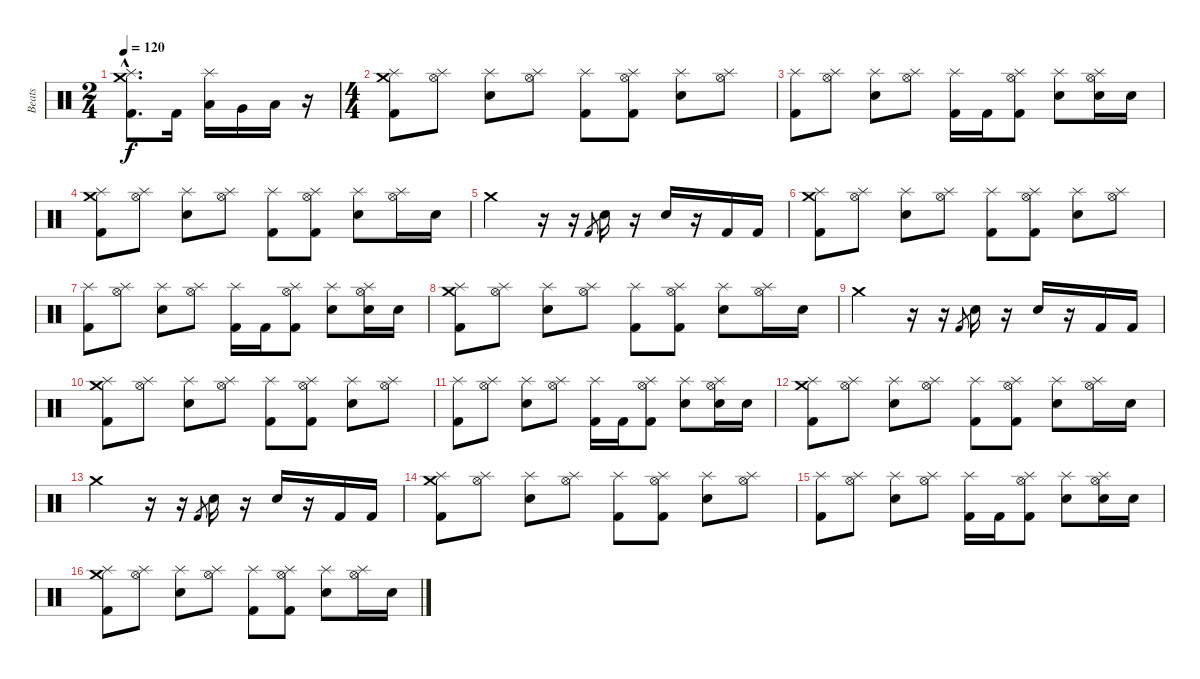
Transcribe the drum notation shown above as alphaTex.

\track ("Beats" "Beats") {instrument percussion}
\staff {score}
\articulation defaults
\ts (2 4)
\tempo 120
\clef neutral
\ks c
("Kick (hit) 2"{hac} "Crash medium (hit)"{hac} "Splash (hit)"{hac}).8{d dy f} "Kick (hit) 2".16 ("Low Tom (hit)" "Splash (hit)").16 "Very Low Tom (hit)".16 "Low Floor Tom (hit)".16 r.16 |
\ts (4 4)
("Kick (hit) 2" "Crash medium (hit)" "Splash (hit)").8 ("Hi-Hat (open)" "Splash (hit)").8 ("Electric Snare (hit)" "Splash (hit)").8 ("Hi-Hat (open)" "Splash (hit)").8 ("Kick (hit) 2" "Splash (hit)").8 ("Kick (hit) 2" "Hi-Hat (open)" "Splash (hit)").8 ("Electric Snare (hit)" "Splash (hit)").8 ("Hi-Hat (open)" "Splash (hit)").8 |
("Kick (hit) 2" "Splash (hit)").8 ("Hi-Hat (open)" "Splash (hit)").8 ("Electric Snare (hit)" "Splash (hit)").8 ("Hi-Hat (open)" "Splash (hit)").8 ("Kick (hit) 2" "Splash (hit)").16 "Kick (hit) 2".16 ("Kick (hit) 2" "Hi-Hat (open)" "Splash (hit)").8 ("Electric Snare (hit)" "Splash (hit)").8 ("Electric Snare (hit)" "Hi-Hat (open)" "Splash (hit)").16 "Electric Snare (hit)".16 |
("Kick (hit) 2" "Crash medium (hit)" "Splash (hit)").8 ("Hi-Hat (open)" "Splash (hit)").8 ("Electric Snare (hit)" "Splash (hit)").8 ("Hi-Hat (open)" "Splash (hit)").8 ("Kick (hit) 2" "Splash (hit)").8 ("Kick (hit) 2" "Hi-Hat (open)" "Splash (hit)").8 ("Electric Snare (hit)" "Splash (hit)").8 ("Hi-Hat (open)" "Splash (hit)").16 "Electric Snare (hit)".16 |
"Crash medium (hit)".2 r.16 r.16 "Kick (hit) 2".8{gr} "Electric Snare (hit)".16 r.16 "Electric Snare (hit)".16 r.16 "Kick (hit) 2".16 "Kick (hit) 2".16 |
("Kick (hit) 2" "Crash medium (hit)" "Splash (hit)").8 ("Hi-Hat (open)" "Splash (hit)").8 ("Electric Snare (hit)" "Splash (hit)").8 ("Hi-Hat (open)" "Splash (hit)").8 ("Kick (hit) 2" "Splash (hit)").8 ("Kick (hit) 2" "Hi-Hat (open)" "Splash (hit)").8 ("Electric Snare (hit)" "Splash (hit)").8 ("Hi-Hat (open)" "Splash (hit)").8 |
("Kick (hit) 2" "Splash (hit)").8 ("Hi-Hat (open)" "Splash (hit)").8 ("Electric Snare (hit)" "Splash (hit)").8 ("Hi-Hat (open)" "Splash (hit)").8 ("Kick (hit) 2" "Splash (hit)").16 "Kick (hit) 2".16 ("Kick (hit) 2" "Hi-Hat (open)" "Splash (hit)").8 ("Electric Snare (hit)" "Splash (hit)").8 ("Electric Snare (hit)" "Hi-Hat (open)" "Splash (hit)").16 "Electric Snare (hit)".16 |
("Kick (hit) 2" "Crash medium (hit)" "Splash (hit)").8 ("Hi-Hat (open)" "Splash (hit)").8 ("Electric Snare (hit)" "Splash (hit)").8 ("Hi-Hat (open)" "Splash (hit)").8 ("Kick (hit) 2" "Splash (hit)").8 ("Kick (hit) 2" "Hi-Hat (open)" "Splash (hit)").8 ("Electric Snare (hit)" "Splash (hit)").8 ("Hi-Hat (open)" "Splash (hit)").16 "Electric Snare (hit)".16 |
"Crash medium (hit)".2 r.16 r.16 "Kick (hit) 2".8{gr} "Electric Snare (hit)".16 r.16 "Electric Snare (hit)".16 r.16 "Kick (hit) 2".16 "Kick (hit) 2".16 |
("Kick (hit) 2" "Crash medium (hit)" "Splash (hit)").8 ("Hi-Hat (open)" "Splash (hit)").8 ("Electric Snare (hit)" "Splash (hit)").8 ("Hi-Hat (open)" "Splash (hit)").8 ("Kick (hit) 2" "Splash (hit)").8 ("Kick (hit) 2" "Hi-Hat (open)" "Splash (hit)").8 ("Electric Snare (hit)" "Splash (hit)").8 ("Hi-Hat (open)" "Splash (hit)").8 |
("Kick (hit) 2" "Splash (hit)").8 ("Hi-Hat (open)" "Splash (hit)").8 ("Electric Snare (hit)" "Splash (hit)").8 ("Hi-Hat (open)" "Splash (hit)").8 ("Kick (hit) 2" "Splash (hit)").16 "Kick (hit) 2".16 ("Kick (hit) 2" "Hi-Hat (open)" "Splash (hit)").8 ("Electric Snare (hit)" "Splash (hit)").8 ("Electric Snare (hit)" "Hi-Hat (open)" "Splash (hit)").16 "Electric Snare (hit)".16 |
("Kick (hit) 2" "Crash medium (hit)" "Splash (hit)").8 ("Hi-Hat (open)" "Splash (hit)").8 ("Electric Snare (hit)" "Splash (hit)").8 ("Hi-Hat (open)" "Splash (hit)").8 ("Kick (hit) 2" "Splash (hit)").8 ("Kick (hit) 2" "Hi-Hat (open)" "Splash (hit)").8 ("Electric Snare (hit)" "Splash (hit)").8 ("Hi-Hat (open)" "Splash (hit)").16 "Electric Snare (hit)".16 |
"Crash medium (hit)".2 r.16 r.16 "Kick (hit) 2".8{gr} "Electric Snare (hit)".16 r.16 "Electric Snare (hit)".16 r.16 "Kick (hit) 2".16 "Kick (hit) 2".16 |
("Kick (hit) 2" "Crash medium (hit)" "Splash (hit)").8 ("Hi-Hat (open)" "Splash (hit)").8 ("Electric Snare (hit)" "Splash (hit)").8 ("Hi-Hat (open)" "Splash (hit)").8 ("Kick (hit) 2" "Splash (hit)").8 ("Kick (hit) 2" "Hi-Hat (open)" "Splash (hit)").8 ("Electric Snare (hit)" "Splash (hit)").8 ("Hi-Hat (open)" "Splash (hit)").8 |
("Kick (hit) 2" "Splash (hit)").8 ("Hi-Hat (open)" "Splash (hit)").8 ("Electric Snare (hit)" "Splash (hit)").8 ("Hi-Hat (open)" "Splash (hit)").8 ("Kick (hit) 2" "Splash (hit)").16 "Kick (hit) 2".16 ("Kick (hit) 2" "Hi-Hat (open)" "Splash (hit)").8 ("Electric Snare (hit)" "Splash (hit)").8 ("Electric Snare (hit)" "Hi-Hat (open)" "Splash (hit)").16 "Electric Snare (hit)".16 |
("Kick (hit) 2" "Crash medium (hit)" "Splash (hit)").8 ("Hi-Hat (open)" "Splash (hit)").8 ("Electric Snare (hit)" "Splash (hit)").8 ("Hi-Hat (open)" "Splash (hit)").8 ("Kick (hit) 2" "Splash (hit)").8 ("Kick (hit) 2" "Hi-Hat (open)" "Splash (hit)").8 ("Electric Snare (hit)" "Splash (hit)").8 ("Hi-Hat (open)" "Splash (hit)").16 "Electric Snare (hit)".16
